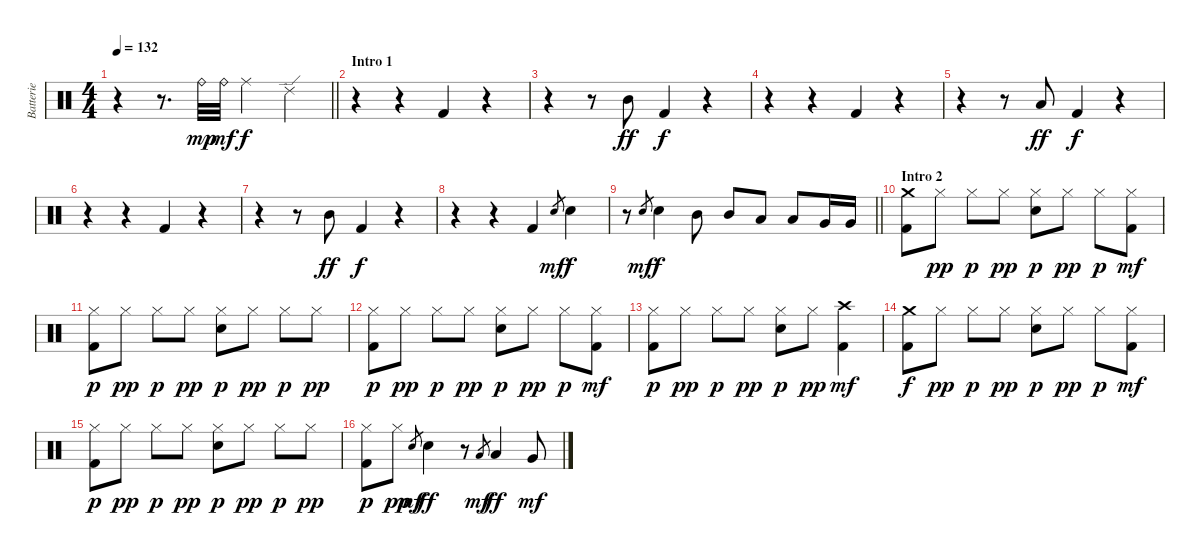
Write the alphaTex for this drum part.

\track ("Batterie" "Batterie") {instrument percussion}
\staff {score}
\articulation defaults
\ts (4 4)
\tempo 132
\clef neutral
\barLineRight lightlight
\ks c
r.4{dy mp} r.8{d} "Ride (bell)".32 "Ride (bell)".32{dy mf} "Ride (middle)".4{dy f} "Ride (edge) 2".4 |
\section ("" "Intro 1")
r.4 r.4 "Kick (hit) 2".4 r.4 |
r.4 r.8 "Mid Tom (hit)".8{dy ff} "Kick (hit) 2".4{dy f} r.4 |
r.4 r.4 "Kick (hit) 2".4 r.4 |
r.4 r.8 "Low Floor Tom (hit)".8{dy ff} "Kick (hit) 2".4{dy f} r.4 |
r.4 r.4 "Kick (hit) 2".4 r.4 |
r.4 r.8 "Mid Tom (hit)".8{dy ff} "Kick (hit) 2".4{dy f} r.4 |
r.4 r.4 "Kick (hit) 2".4 "Electric Snare (hit)".8{gr dy mf} "Electric Snare (hit)".4{dy f} |
\barLineRight lightlight
r.8 "Electric Snare (hit)".8{gr dy mf} "Electric Snare (hit)".4{dy f} "Mid Tom (hit)".8 "Mid Tom (hit)".8 "Low Tom (hit)".8 "Low Tom (hit)".8 "Very Low Tom (hit)".16 "Very Low Tom (hit)".16 |
\section ("" "Intro 2")
("Crash medium (hit)" "Kick (hit) 2").8 "Hi-Hat (closed)".8{dy pp} "Hi-Hat (closed)".8{dy p} "Hi-Hat (closed)".8{dy pp} ("Hi-Hat (closed)" "Electric Snare (hit)").8{dy p} "Hi-Hat (closed)".8{dy pp} "Hi-Hat (closed)".8{dy p} ("Hi-Hat (closed)" "Kick (hit) 2").8{dy mf} |
("Hi-Hat (closed)" "Kick (hit) 2").8{dy p} "Hi-Hat (closed)".8{dy pp} "Hi-Hat (closed)".8{dy p} "Hi-Hat (closed)".8{dy pp} ("Hi-Hat (closed)" "Electric Snare (hit)").8{dy p} "Hi-Hat (closed)".8{dy pp} "Hi-Hat (closed)".8{dy p} "Hi-Hat (closed)".8{dy pp} |
("Hi-Hat (closed)" "Kick (hit) 2").8{dy p} "Hi-Hat (closed)".8{dy pp} "Hi-Hat (closed)".8{dy p} "Hi-Hat (closed)".8{dy pp} ("Hi-Hat (closed)" "Electric Snare (hit)").8{dy p} "Hi-Hat (closed)".8{dy pp} "Hi-Hat (closed)".8{dy p} ("Hi-Hat (closed)" "Kick (hit) 2").8{dy mf} |
("Hi-Hat (closed)" "Kick (hit) 2").8{dy p} "Hi-Hat (closed)".8{dy pp} "Hi-Hat (closed)".8{dy p} "Hi-Hat (closed)".8{dy pp} ("Hi-Hat (closed)" "Electric Snare (hit)").8{dy p} "Hi-Hat (closed)".8{dy pp} ("Crash high (hit)" "Kick (hit) 2").4{dy mf} |
("Crash medium (hit)" "Kick (hit) 2").8{dy f} "Hi-Hat (closed)".8{dy pp} "Hi-Hat (closed)".8{dy p} "Hi-Hat (closed)".8{dy pp} ("Hi-Hat (closed)" "Electric Snare (hit)").8{dy p} "Hi-Hat (closed)".8{dy pp} "Hi-Hat (closed)".8{dy p} ("Hi-Hat (closed)" "Kick (hit) 2").8{dy mf} |
("Hi-Hat (closed)" "Kick (hit) 2").8{dy p} "Hi-Hat (closed)".8{dy pp} "Hi-Hat (closed)".8{dy p} "Hi-Hat (closed)".8{dy pp} ("Hi-Hat (closed)" "Electric Snare (hit)").8{dy p} "Hi-Hat (closed)".8{dy pp} "Hi-Hat (closed)".8{dy p} "Hi-Hat (closed)".8{dy pp} |
("Hi-Hat (closed)" "Kick (hit) 2").8{dy p} "Hi-Hat (closed)".8{dy pp} "Electric Snare (hit)".8{gr dy mf} "Electric Snare (hit)".4{dy ff} r.8 "Low Tom (hit)".8{gr dy mf} "Low Tom (hit)".4{dy ff} "Very Low Tom (hit)".8{dy mf}
